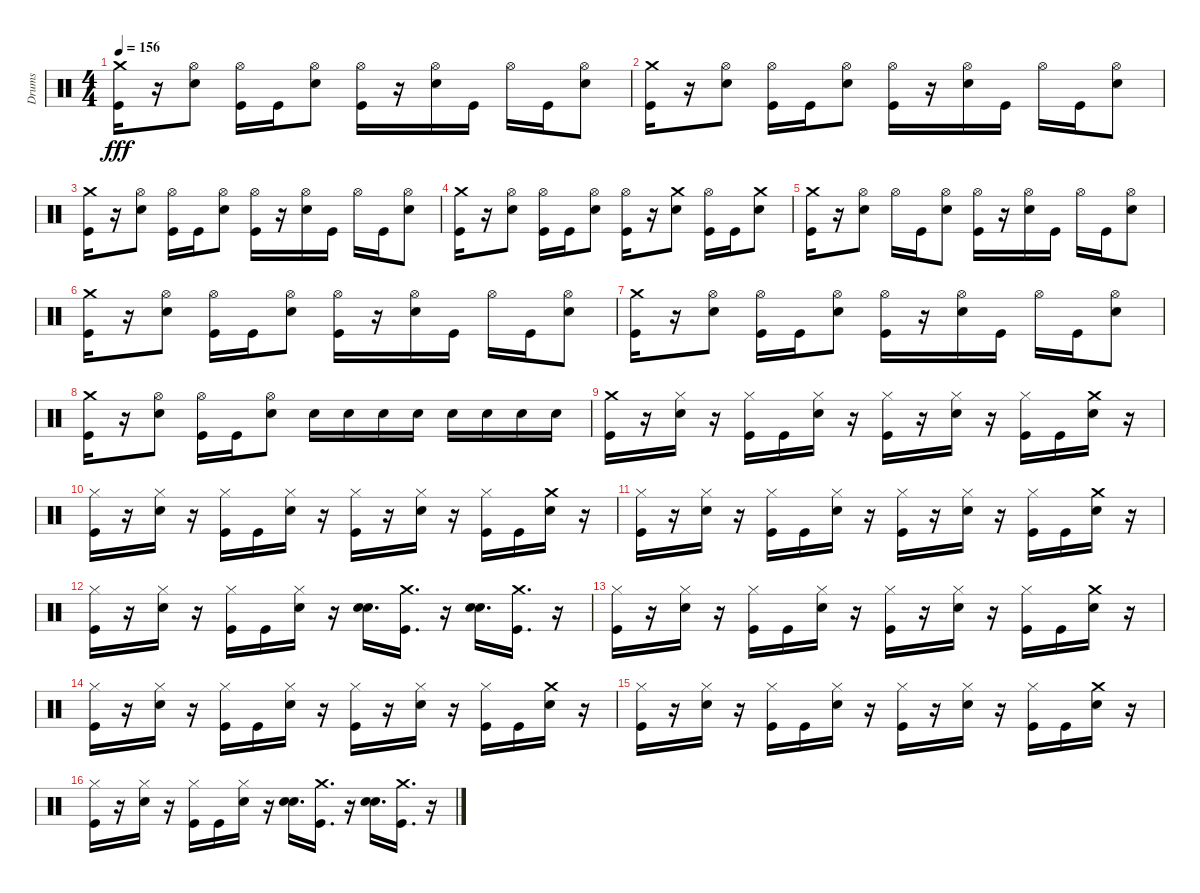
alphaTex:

\track ("Drums" "Drums") {instrument percussion}
\staff {score}
\articulation defaults
\ts (4 4)
\tempo 156
\clef neutral
\ks c
("Kick (hit)" "Crash medium (hit)").16{dy fff} r.16 ("Snare (hit) 2" "Hi-Hat (open)").8 ("Kick (hit)" "Hi-Hat (open)").16 "Kick (hit)".16 ("Snare (hit) 2" "Hi-Hat (open)").8 ("Kick (hit)" "Hi-Hat (open)").16 r.16 ("Snare (hit) 2" "Hi-Hat (open)").16 "Kick (hit)".16 "Hi-Hat (open)".16 "Kick (hit)".16 ("Snare (hit) 2" "Hi-Hat (open)").8 |
("Kick (hit)" "Crash medium (hit)").16 r.16 ("Snare (hit) 2" "Hi-Hat (open)").8 ("Kick (hit)" "Hi-Hat (open)").16 "Kick (hit)".16 ("Snare (hit) 2" "Hi-Hat (open)").8 ("Kick (hit)" "Hi-Hat (open)").16 r.16 ("Snare (hit) 2" "Hi-Hat (open)").16 "Kick (hit)".16 "Hi-Hat (open)".16 "Kick (hit)".16 ("Snare (hit) 2" "Hi-Hat (open)").8 |
("Kick (hit)" "Crash medium (hit)").16 r.16 ("Snare (hit) 2" "Hi-Hat (open)").8 ("Kick (hit)" "Hi-Hat (open)").16 "Kick (hit)".16 ("Snare (hit) 2" "Hi-Hat (open)").8 ("Kick (hit)" "Hi-Hat (open)").16 r.16 ("Snare (hit) 2" "Hi-Hat (open)").16 "Kick (hit)".16 "Hi-Hat (open)".16 "Kick (hit)".16 ("Snare (hit) 2" "Hi-Hat (open)").8 |
("Kick (hit)" "Crash medium (hit)").16 r.16 ("Snare (hit) 2" "Hi-Hat (open)").8 ("Kick (hit)" "Hi-Hat (open)").16 "Kick (hit)".16 ("Snare (hit) 2" "Hi-Hat (open)").8 ("Kick (hit)" "Hi-Hat (open)").16 r.16 ("Crash medium (hit)" "Snare (hit) 2").8 ("Kick (hit)" "Hi-Hat (open)").16 "Kick (hit)".16 ("Crash medium (hit)" "Snare (hit) 2").8 |
("Kick (hit)" "Crash medium (hit)").16 r.16 ("Snare (hit) 2" "Hi-Hat (open)").8 "Hi-Hat (open)".16 "Kick (hit)".16 ("Snare (hit) 2" "Hi-Hat (open)").8 ("Kick (hit)" "Hi-Hat (open)").16 r.16 ("Snare (hit) 2" "Hi-Hat (open)").16 "Kick (hit)".16 "Hi-Hat (open)".16 "Kick (hit)".16 ("Snare (hit) 2" "Hi-Hat (open)").8 |
("Kick (hit)" "Crash medium (hit)").16 r.16 ("Snare (hit) 2" "Hi-Hat (open)").8 ("Kick (hit)" "Hi-Hat (open)").16 "Kick (hit)".16 ("Snare (hit) 2" "Hi-Hat (open)").8 ("Kick (hit)" "Hi-Hat (open)").16 r.16 ("Snare (hit) 2" "Hi-Hat (open)").16 "Kick (hit)".16 "Hi-Hat (open)".16 "Kick (hit)".16 ("Snare (hit) 2" "Hi-Hat (open)").8 |
("Kick (hit)" "Crash medium (hit)").16 r.16 ("Snare (hit) 2" "Hi-Hat (open)").8 ("Kick (hit)" "Hi-Hat (open)").16 "Kick (hit)".16 ("Snare (hit) 2" "Hi-Hat (open)").8 ("Kick (hit)" "Hi-Hat (open)").16 r.16 ("Snare (hit) 2" "Hi-Hat (open)").16 "Kick (hit)".16 "Hi-Hat (open)".16 "Kick (hit)".16 ("Snare (hit) 2" "Hi-Hat (open)").8 |
("Kick (hit)" "Crash medium (hit)").16 r.16 ("Snare (hit) 2" "Hi-Hat (open)").8 ("Kick (hit)" "Hi-Hat (open)").16 "Kick (hit)".16 ("Snare (hit) 2" "Hi-Hat (open)").8 "Snare (hit) 2".16 "Snare (hit) 2".16 "Snare (hit) 2".16 "Snare (hit) 2".16 "Snare (hit) 2".16 "Snare (hit) 2".16 "Snare (hit) 2".16 "Snare (hit) 2".16 |
("Crash medium (hit)" "Kick (hit)").16 r.16 ("Snare (hit) 2" "Hi-Hat (closed)").16 r.16 ("Kick (hit)" "Hi-Hat (closed)").16 "Kick (hit)".16 ("Snare (hit) 2" "Hi-Hat (closed)").16 r.16 ("Hi-Hat (closed)" "Kick (hit)").16 r.16 ("Snare (hit) 2" "Hi-Hat (closed)").16 r.16 ("Hi-Hat (closed)" "Kick (hit)").16 "Kick (hit)".16 ("Crash medium (hit)" "Snare (hit) 2").16 r.16 |
("Hi-Hat (closed)" "Kick (hit)").16 r.16 ("Hi-Hat (closed)" "Snare (hit) 2").16 r.16 ("Hi-Hat (closed)" "Kick (hit)").16 "Kick (hit)".16 ("Hi-Hat (closed)" "Snare (hit) 2").16 r.16 ("Hi-Hat (closed)" "Kick (hit)").16 r.16 ("Hi-Hat (closed)" "Snare (hit) 2").16 r.16 ("Hi-Hat (closed)" "Kick (hit)").16 "Kick (hit)".16 ("Crash medium (hit)" "Snare (hit) 2").16 r.16 |
("Hi-Hat (closed)" "Kick (hit)").16 r.16 ("Hi-Hat (closed)" "Snare (hit) 2").16 r.16 ("Hi-Hat (closed)" "Kick (hit)").16 "Kick (hit)".16 ("Hi-Hat (closed)" "Snare (hit) 2").16 r.16 ("Hi-Hat (closed)" "Kick (hit)").16 r.16 ("Hi-Hat (closed)" "Snare (hit) 2").16 r.16 ("Hi-Hat (closed)" "Kick (hit)").16 "Kick (hit)".16 ("Crash medium (hit)" "Snare (hit) 2").16 r.16 |
("Hi-Hat (closed)" "Kick (hit)").16 r.16 ("Hi-Hat (closed)" "Snare (hit) 2").16 r.16 ("Hi-Hat (closed)" "Kick (hit)").16 "Kick (hit)".16 ("Hi-Hat (closed)" "Snare (hit) 2").16 r.16 ("Snare (hit) 2" "Snare (hit) 2").16{d} ("Crash medium (hit)" "Kick (hit)").16{d} r.16 ("Snare (hit) 2" "Snare (hit) 2").16{d} ("Crash medium (hit)" "Kick (hit)").16{d} r.16 |
("Hi-Hat (closed)" "Kick (hit)").16 r.16 ("Hi-Hat (closed)" "Snare (hit) 2").16 r.16 ("Hi-Hat (closed)" "Kick (hit)").16 "Kick (hit)".16 ("Hi-Hat (closed)" "Snare (hit) 2").16 r.16 ("Hi-Hat (closed)" "Kick (hit)").16 r.16 ("Hi-Hat (closed)" "Snare (hit) 2").16 r.16 ("Hi-Hat (closed)" "Kick (hit)").16 "Kick (hit)".16 ("Crash medium (hit)" "Snare (hit) 2").16 r.16 |
("Hi-Hat (closed)" "Kick (hit)").16 r.16 ("Hi-Hat (closed)" "Snare (hit) 2").16 r.16 ("Hi-Hat (closed)" "Kick (hit)").16 "Kick (hit)".16 ("Hi-Hat (closed)" "Snare (hit) 2").16 r.16 ("Hi-Hat (closed)" "Kick (hit)").16 r.16 ("Hi-Hat (closed)" "Snare (hit) 2").16 r.16 ("Hi-Hat (closed)" "Kick (hit)").16 "Kick (hit)".16 ("Crash medium (hit)" "Snare (hit) 2").16 r.16 |
("Hi-Hat (closed)" "Kick (hit)").16 r.16 ("Hi-Hat (closed)" "Snare (hit) 2").16 r.16 ("Hi-Hat (closed)" "Kick (hit)").16 "Kick (hit)".16 ("Hi-Hat (closed)" "Snare (hit) 2").16 r.16 ("Hi-Hat (closed)" "Kick (hit)").16 r.16 ("Hi-Hat (closed)" "Snare (hit) 2").16 r.16 ("Hi-Hat (closed)" "Kick (hit)").16 "Kick (hit)".16 ("Crash medium (hit)" "Snare (hit) 2").16 r.16 |
("Hi-Hat (closed)" "Kick (hit)").16 r.16 ("Hi-Hat (closed)" "Snare (hit) 2").16 r.16 ("Hi-Hat (closed)" "Kick (hit)").16 "Kick (hit)".16 ("Hi-Hat (closed)" "Snare (hit) 2").16 r.16 ("Snare (hit) 2" "Snare (hit) 2").16{d} ("Crash medium (hit)" "Kick (hit)").16{d} r.16 ("Snare (hit) 2" "Snare (hit) 2").16{d} ("Crash medium (hit)" "Kick (hit)").16{d} r.16
